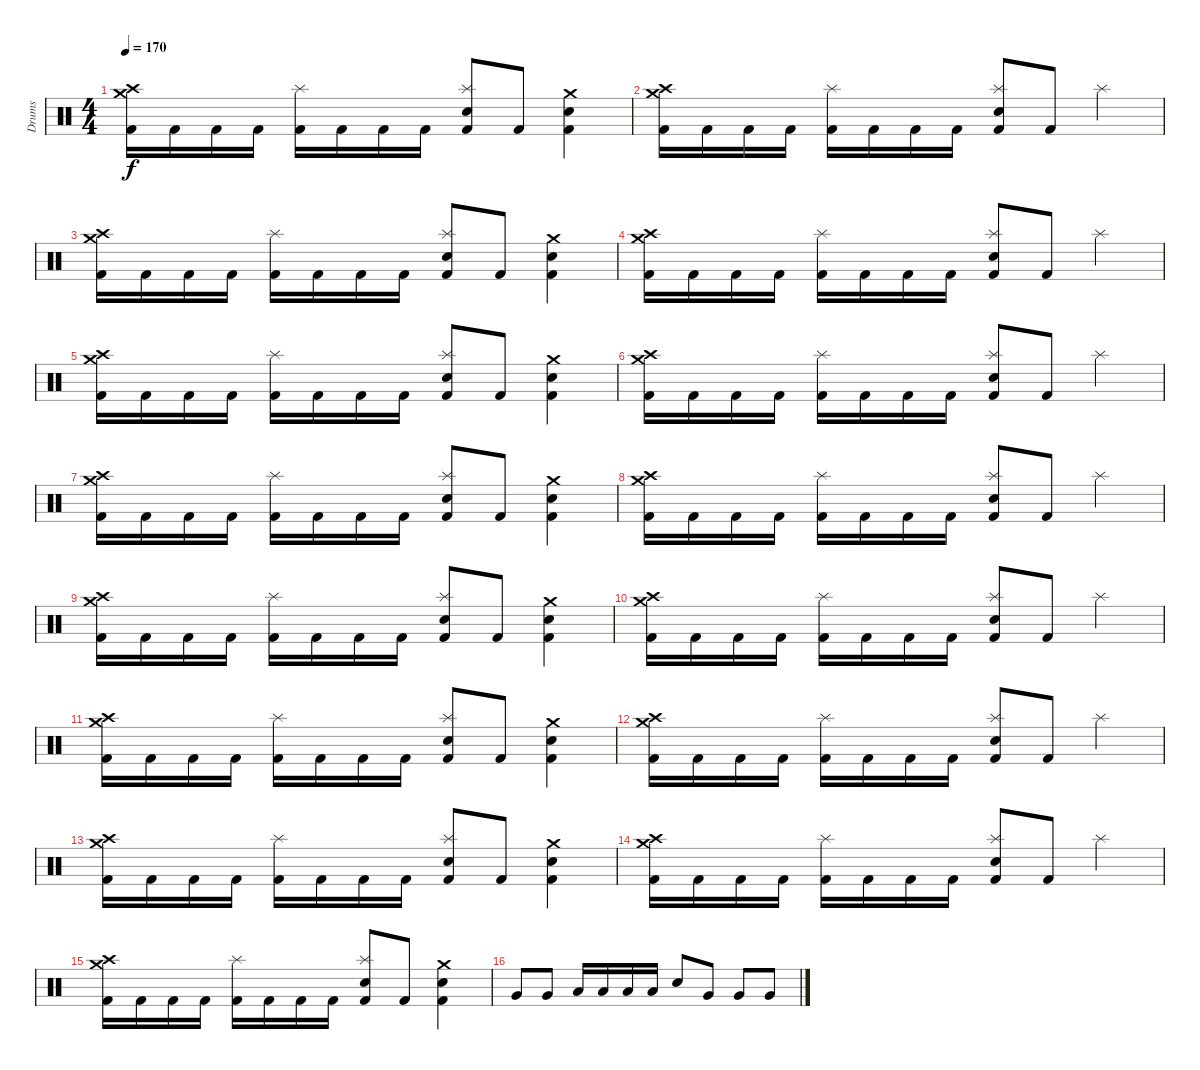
\track ("Drums" "Drums") {instrument percussion}
\staff {score}
\articulation defaults
\ts (4 4)
\tempo 170
\clef neutral
\ks c
("Crash medium (hit)" "Crash high (hit)" "Kick (hit) 2").16{dy f} "Kick (hit) 2".16 "Kick (hit) 2".16 "Kick (hit) 2".16 ("Splash (hit)" "Kick (hit) 2").16 "Kick (hit) 2".16 "Kick (hit) 2".16 "Kick (hit) 2".16 ("Splash (hit)" "Snare (hit) 2" "Kick (hit) 2").8 "Kick (hit) 2".8 ("Crash medium (hit)" "Snare (hit) 2" "Kick (hit) 2").4 |
("Crash medium (hit)" "Crash high (hit)" "Kick (hit) 2").16 "Kick (hit) 2".16 "Kick (hit) 2".16 "Kick (hit) 2".16 ("Splash (hit)" "Kick (hit) 2").16 "Kick (hit) 2".16 "Kick (hit) 2".16 "Kick (hit) 2".16 ("Splash (hit)" "Snare (hit) 2" "Kick (hit) 2").8 "Kick (hit) 2".8 "Splash (hit)".4 |
("Crash medium (hit)" "Crash high (hit)" "Kick (hit) 2").16 "Kick (hit) 2".16 "Kick (hit) 2".16 "Kick (hit) 2".16 ("Splash (hit)" "Kick (hit) 2").16 "Kick (hit) 2".16 "Kick (hit) 2".16 "Kick (hit) 2".16 ("Splash (hit)" "Snare (hit) 2" "Kick (hit) 2").8 "Kick (hit) 2".8 ("Crash medium (hit)" "Snare (hit) 2" "Kick (hit) 2").4 |
("Crash medium (hit)" "Crash high (hit)" "Kick (hit) 2").16 "Kick (hit) 2".16 "Kick (hit) 2".16 "Kick (hit) 2".16 ("Splash (hit)" "Kick (hit) 2").16 "Kick (hit) 2".16 "Kick (hit) 2".16 "Kick (hit) 2".16 ("Splash (hit)" "Snare (hit) 2" "Kick (hit) 2").8 "Kick (hit) 2".8 "Splash (hit)".4 |
("Crash medium (hit)" "Crash high (hit)" "Kick (hit) 2").16 "Kick (hit) 2".16 "Kick (hit) 2".16 "Kick (hit) 2".16 ("Splash (hit)" "Kick (hit) 2").16 "Kick (hit) 2".16 "Kick (hit) 2".16 "Kick (hit) 2".16 ("Splash (hit)" "Snare (hit) 2" "Kick (hit) 2").8 "Kick (hit) 2".8 ("Crash medium (hit)" "Snare (hit) 2" "Kick (hit) 2").4 |
("Crash medium (hit)" "Crash high (hit)" "Kick (hit) 2").16 "Kick (hit) 2".16 "Kick (hit) 2".16 "Kick (hit) 2".16 ("Splash (hit)" "Kick (hit) 2").16 "Kick (hit) 2".16 "Kick (hit) 2".16 "Kick (hit) 2".16 ("Splash (hit)" "Snare (hit) 2" "Kick (hit) 2").8 "Kick (hit) 2".8 "Splash (hit)".4 |
("Crash medium (hit)" "Crash high (hit)" "Kick (hit) 2").16 "Kick (hit) 2".16 "Kick (hit) 2".16 "Kick (hit) 2".16 ("Splash (hit)" "Kick (hit) 2").16 "Kick (hit) 2".16 "Kick (hit) 2".16 "Kick (hit) 2".16 ("Splash (hit)" "Snare (hit) 2" "Kick (hit) 2").8 "Kick (hit) 2".8 ("Crash medium (hit)" "Snare (hit) 2" "Kick (hit) 2").4 |
("Crash medium (hit)" "Crash high (hit)" "Kick (hit) 2").16 "Kick (hit) 2".16 "Kick (hit) 2".16 "Kick (hit) 2".16 ("Splash (hit)" "Kick (hit) 2").16 "Kick (hit) 2".16 "Kick (hit) 2".16 "Kick (hit) 2".16 ("Splash (hit)" "Snare (hit) 2" "Kick (hit) 2").8 "Kick (hit) 2".8 "Splash (hit)".4 |
("Crash medium (hit)" "Crash high (hit)" "Kick (hit) 2").16 "Kick (hit) 2".16 "Kick (hit) 2".16 "Kick (hit) 2".16 ("Splash (hit)" "Kick (hit) 2").16 "Kick (hit) 2".16 "Kick (hit) 2".16 "Kick (hit) 2".16 ("Splash (hit)" "Snare (hit) 2" "Kick (hit) 2").8 "Kick (hit) 2".8 ("Crash medium (hit)" "Snare (hit) 2" "Kick (hit) 2").4 |
("Crash medium (hit)" "Crash high (hit)" "Kick (hit) 2").16 "Kick (hit) 2".16 "Kick (hit) 2".16 "Kick (hit) 2".16 ("Splash (hit)" "Kick (hit) 2").16 "Kick (hit) 2".16 "Kick (hit) 2".16 "Kick (hit) 2".16 ("Splash (hit)" "Snare (hit) 2" "Kick (hit) 2").8 "Kick (hit) 2".8 "Splash (hit)".4 |
("Crash medium (hit)" "Crash high (hit)" "Kick (hit) 2").16 "Kick (hit) 2".16 "Kick (hit) 2".16 "Kick (hit) 2".16 ("Splash (hit)" "Kick (hit) 2").16 "Kick (hit) 2".16 "Kick (hit) 2".16 "Kick (hit) 2".16 ("Splash (hit)" "Snare (hit) 2" "Kick (hit) 2").8 "Kick (hit) 2".8 ("Crash medium (hit)" "Snare (hit) 2" "Kick (hit) 2").4 |
("Crash medium (hit)" "Crash high (hit)" "Kick (hit) 2").16 "Kick (hit) 2".16 "Kick (hit) 2".16 "Kick (hit) 2".16 ("Splash (hit)" "Kick (hit) 2").16 "Kick (hit) 2".16 "Kick (hit) 2".16 "Kick (hit) 2".16 ("Splash (hit)" "Snare (hit) 2" "Kick (hit) 2").8 "Kick (hit) 2".8 "Splash (hit)".4 |
("Crash medium (hit)" "Crash high (hit)" "Kick (hit) 2").16 "Kick (hit) 2".16 "Kick (hit) 2".16 "Kick (hit) 2".16 ("Splash (hit)" "Kick (hit) 2").16 "Kick (hit) 2".16 "Kick (hit) 2".16 "Kick (hit) 2".16 ("Splash (hit)" "Snare (hit) 2" "Kick (hit) 2").8 "Kick (hit) 2".8 ("Crash medium (hit)" "Snare (hit) 2" "Kick (hit) 2").4 |
("Crash medium (hit)" "Crash high (hit)" "Kick (hit) 2").16 "Kick (hit) 2".16 "Kick (hit) 2".16 "Kick (hit) 2".16 ("Splash (hit)" "Kick (hit) 2").16 "Kick (hit) 2".16 "Kick (hit) 2".16 "Kick (hit) 2".16 ("Splash (hit)" "Snare (hit) 2" "Kick (hit) 2").8 "Kick (hit) 2".8 "Splash (hit)".4 |
("Crash medium (hit)" "Crash high (hit)" "Kick (hit) 2").16 "Kick (hit) 2".16 "Kick (hit) 2".16 "Kick (hit) 2".16 ("Splash (hit)" "Kick (hit) 2").16 "Kick (hit) 2".16 "Kick (hit) 2".16 "Kick (hit) 2".16 ("Splash (hit)" "Snare (hit) 2" "Kick (hit) 2").8 "Kick (hit) 2".8 ("Crash medium (hit)" "Snare (hit) 2" "Kick (hit) 2").4 |
"Very Low Tom (hit)".8 "Very Low Tom (hit)".8 "Low Tom (hit)".16 "Low Tom (hit)".16 "Low Tom (hit)".16 "Low Tom (hit)".16 "Snare (hit) 2".8 "Very Low Tom (hit)".8 "Very Low Tom (hit)".8 "Very Low Tom (hit)".8
